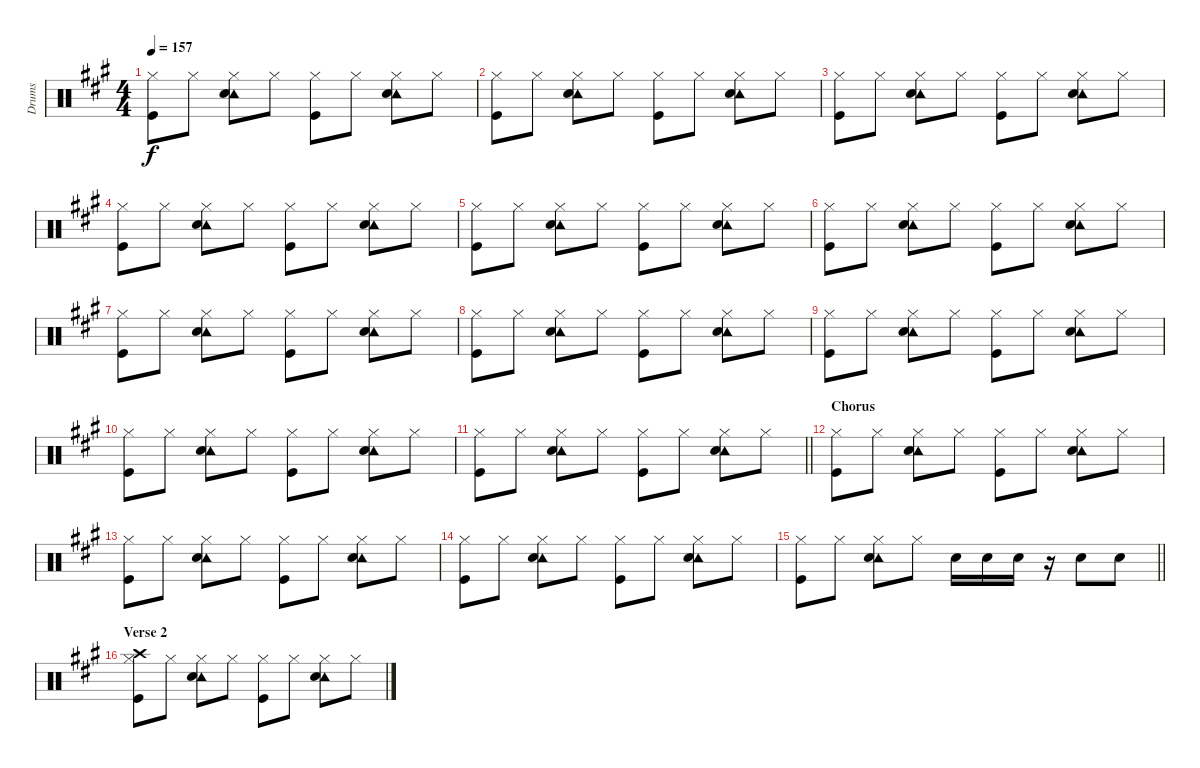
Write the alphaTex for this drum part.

\track ("Drums" "Drums") {instrument percussion}
\staff {score}
\articulation defaults
\ts (4 4)
\tempo 157
\clef neutral
\ks a
("Hi-Hat (closed)" "Kick (hit)").8{dy f} "Hi-Hat (closed)".8 ("Hi-Hat (closed)" "Tambourine (hit)" "Electric Snare (hit)").8 "Hi-Hat (closed)".8 ("Hi-Hat (closed)" "Kick (hit)").8 "Hi-Hat (closed)".8 ("Hi-Hat (closed)" "Tambourine (hit)" "Electric Snare (hit)").8 "Hi-Hat (closed)".8 |
("Hi-Hat (closed)" "Kick (hit)").8 "Hi-Hat (closed)".8 ("Hi-Hat (closed)" "Tambourine (hit)" "Electric Snare (hit)").8 "Hi-Hat (closed)".8 ("Hi-Hat (closed)" "Kick (hit)").8 "Hi-Hat (closed)".8 ("Hi-Hat (closed)" "Tambourine (hit)" "Electric Snare (hit)").8 "Hi-Hat (closed)".8 |
("Hi-Hat (closed)" "Kick (hit)").8 "Hi-Hat (closed)".8 ("Hi-Hat (closed)" "Tambourine (hit)" "Electric Snare (hit)").8 "Hi-Hat (closed)".8 ("Hi-Hat (closed)" "Kick (hit)").8 "Hi-Hat (closed)".8 ("Hi-Hat (closed)" "Tambourine (hit)" "Electric Snare (hit)").8 "Hi-Hat (closed)".8 |
("Hi-Hat (closed)" "Kick (hit)").8 "Hi-Hat (closed)".8 ("Hi-Hat (closed)" "Tambourine (hit)" "Electric Snare (hit)").8 "Hi-Hat (closed)".8 ("Hi-Hat (closed)" "Kick (hit)").8 "Hi-Hat (closed)".8 ("Hi-Hat (closed)" "Tambourine (hit)" "Electric Snare (hit)").8 "Hi-Hat (closed)".8 |
("Hi-Hat (closed)" "Kick (hit)").8 "Hi-Hat (closed)".8 ("Hi-Hat (closed)" "Tambourine (hit)" "Electric Snare (hit)").8 "Hi-Hat (closed)".8 ("Hi-Hat (closed)" "Kick (hit)").8 "Hi-Hat (closed)".8 ("Hi-Hat (closed)" "Tambourine (hit)" "Electric Snare (hit)").8 "Hi-Hat (closed)".8 |
("Hi-Hat (closed)" "Kick (hit)").8 "Hi-Hat (closed)".8 ("Hi-Hat (closed)" "Tambourine (hit)" "Electric Snare (hit)").8 "Hi-Hat (closed)".8 ("Hi-Hat (closed)" "Kick (hit)").8 "Hi-Hat (closed)".8 ("Hi-Hat (closed)" "Tambourine (hit)" "Electric Snare (hit)").8 "Hi-Hat (closed)".8 |
("Hi-Hat (closed)" "Kick (hit)").8 "Hi-Hat (closed)".8 ("Hi-Hat (closed)" "Tambourine (hit)" "Electric Snare (hit)").8 "Hi-Hat (closed)".8 ("Hi-Hat (closed)" "Kick (hit)").8 "Hi-Hat (closed)".8 ("Hi-Hat (closed)" "Tambourine (hit)" "Electric Snare (hit)").8 "Hi-Hat (closed)".8 |
("Hi-Hat (closed)" "Kick (hit)").8 "Hi-Hat (closed)".8 ("Hi-Hat (closed)" "Tambourine (hit)" "Electric Snare (hit)").8 "Hi-Hat (closed)".8 ("Hi-Hat (closed)" "Kick (hit)").8 "Hi-Hat (closed)".8 ("Hi-Hat (closed)" "Tambourine (hit)" "Electric Snare (hit)").8 "Hi-Hat (closed)".8 |
("Hi-Hat (closed)" "Kick (hit)").8 "Hi-Hat (closed)".8 ("Hi-Hat (closed)" "Tambourine (hit)" "Electric Snare (hit)").8 "Hi-Hat (closed)".8 ("Hi-Hat (closed)" "Kick (hit)").8 "Hi-Hat (closed)".8 ("Hi-Hat (closed)" "Tambourine (hit)" "Electric Snare (hit)").8 "Hi-Hat (closed)".8 |
("Hi-Hat (closed)" "Kick (hit)").8 "Hi-Hat (closed)".8 ("Hi-Hat (closed)" "Tambourine (hit)" "Electric Snare (hit)").8 "Hi-Hat (closed)".8 ("Hi-Hat (closed)" "Kick (hit)").8 "Hi-Hat (closed)".8 ("Hi-Hat (closed)" "Tambourine (hit)" "Electric Snare (hit)").8 "Hi-Hat (closed)".8 |
\barLineRight lightlight
("Hi-Hat (closed)" "Kick (hit)").8 "Hi-Hat (closed)".8 ("Hi-Hat (closed)" "Tambourine (hit)" "Electric Snare (hit)").8 "Hi-Hat (closed)".8 ("Hi-Hat (closed)" "Kick (hit)").8 "Hi-Hat (closed)".8 ("Hi-Hat (closed)" "Tambourine (hit)" "Electric Snare (hit)").8 "Hi-Hat (closed)".8 |
\section ("" "Chorus")
("Hi-Hat (closed)" "Kick (hit)").8 "Hi-Hat (closed)".8 ("Hi-Hat (closed)" "Tambourine (hit)" "Electric Snare (hit)").8 "Hi-Hat (closed)".8 ("Hi-Hat (closed)" "Kick (hit)").8 "Hi-Hat (closed)".8 ("Hi-Hat (closed)" "Tambourine (hit)" "Electric Snare (hit)").8 "Hi-Hat (closed)".8 |
("Hi-Hat (closed)" "Kick (hit)").8 "Hi-Hat (closed)".8 ("Hi-Hat (closed)" "Tambourine (hit)" "Electric Snare (hit)").8 "Hi-Hat (closed)".8 ("Hi-Hat (closed)" "Kick (hit)").8 "Hi-Hat (closed)".8 ("Hi-Hat (closed)" "Tambourine (hit)" "Electric Snare (hit)").8 "Hi-Hat (closed)".8 |
("Hi-Hat (closed)" "Kick (hit)").8 "Hi-Hat (closed)".8 ("Hi-Hat (closed)" "Tambourine (hit)" "Electric Snare (hit)").8 "Hi-Hat (closed)".8 ("Hi-Hat (closed)" "Kick (hit)").8 "Hi-Hat (closed)".8 ("Hi-Hat (closed)" "Tambourine (hit)" "Electric Snare (hit)").8 "Hi-Hat (closed)".8 |
\barLineRight lightlight
("Hi-Hat (closed)" "Kick (hit)").8 "Hi-Hat (closed)".8 ("Hi-Hat (closed)" "Tambourine (hit)" "Electric Snare (hit)").8 "Hi-Hat (closed)".8 "Electric Snare (hit)".16 "Electric Snare (hit)".16 "Electric Snare (hit)".16 r.16 "Electric Snare (hit)".8 "Electric Snare (hit)".8 |
\section ("" "Verse 2")
("Hi-Hat (closed)" "Crash high (hit)" "Kick (hit)").8 "Hi-Hat (closed)".8 ("Hi-Hat (closed)" "Tambourine (hit)" "Electric Snare (hit)").8 "Hi-Hat (closed)".8 ("Hi-Hat (closed)" "Kick (hit)").8 "Hi-Hat (closed)".8 ("Hi-Hat (closed)" "Tambourine (hit)" "Electric Snare (hit)").8 "Hi-Hat (closed)".8
